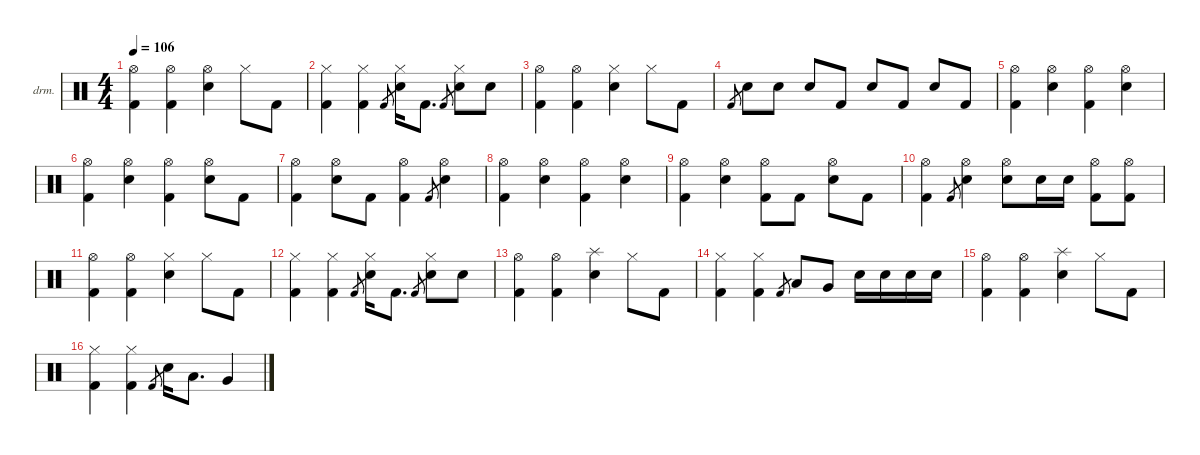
\defaultSystemsLayout 4
\hideDynamics
\bracketExtendMode nobrackets
\firstSystemTrackNameOrientation horizontal
\otherSystemsTrackNameOrientation horizontal
\track ("Lars Ulrich" "drm.") {instrument percussion}
\staff {score}
\articulation defaults
\ts (4 4)
\tempo 106
\clef neutral
\ks c
("Hi-Hat (open)" "Kick (hit) 2").4{dy f} ("Hi-Hat (open)" "Kick (hit) 2").4 ("Hi-Hat (open)" "Snare (hit) 2").4 "Hi-Hat (closed)".8 "Kick (hit) 2".8 |
("Hi-Hat (closed)" "Kick (hit) 2").4 ("Hi-Hat (closed)" "Kick (hit) 2").4 "Kick (hit) 2".8{gr dy mf} ("Hi-Hat (closed)" "Snare (hit) 2").16{dy f} "Kick (hit) 2".8{d} "Kick (hit) 2".8{gr dy mf} ("Hi-Hat (closed)" "Snare (hit) 2").8{dy f} "Snare (hit) 2".8 |
("Hi-Hat (open)" "Kick (hit) 2").4 ("Hi-Hat (open)" "Kick (hit) 2").4 ("Hi-Hat (closed)" "Snare (hit) 2").4 "Hi-Hat (closed)".8 "Kick (hit) 2".8 |
"Kick (hit) 2".8{gr dy mf} "Snare (hit) 2".8{dy f} "Snare (hit) 2".8 "Snare (hit) 2".8 "Kick (hit) 2".8 "Snare (hit) 2".8 "Kick (hit) 2".8 "Snare (hit) 2".8 "Kick (hit) 2".8 |
("Hi-Hat (open)" "Kick (hit) 2").4 ("Hi-Hat (open)" "Snare (hit) 2").4 ("Hi-Hat (open)" "Kick (hit) 2").4 ("Hi-Hat (open)" "Snare (hit) 2").4 |
("Hi-Hat (open)" "Kick (hit) 2").4 ("Hi-Hat (open)" "Snare (hit) 2").4 ("Hi-Hat (open)" "Kick (hit) 2").4 ("Hi-Hat (open)" "Snare (hit) 2").8 "Kick (hit) 2".8 |
("Hi-Hat (open)" "Kick (hit) 2").4 ("Hi-Hat (open)" "Snare (hit) 2").8 "Kick (hit) 2".8 ("Hi-Hat (open)" "Kick (hit) 2").4 "Kick (hit) 2".8{gr dy mf} ("Hi-Hat (open)" "Snare (hit) 2").4{dy f} |
("Hi-Hat (open)" "Kick (hit) 2").4 ("Hi-Hat (open)" "Snare (hit) 2").4 ("Hi-Hat (open)" "Kick (hit) 2").4 ("Hi-Hat (open)" "Snare (hit) 2").4 |
("Hi-Hat (open)" "Kick (hit) 2").4 ("Hi-Hat (open)" "Snare (hit) 2").4 ("Hi-Hat (open)" "Kick (hit) 2").8 "Kick (hit) 2".8 ("Hi-Hat (open)" "Snare (hit) 2").8 "Kick (hit) 2".8 |
("Hi-Hat (open)" "Kick (hit) 2").4 "Kick (hit) 2".8{gr dy mf} ("Hi-Hat (open)" "Snare (hit) 2").4{dy f} ("Hi-Hat (open)" "Snare (hit) 2").8 "Snare (hit) 2".16 "Snare (hit) 2".16 ("Hi-Hat (open)" "Kick (hit) 2").8 ("Hi-Hat (open)" "Kick (hit) 2").8 |
("Hi-Hat (open)" "Kick (hit) 2").4 ("Hi-Hat (open)" "Kick (hit) 2").4 ("Hi-Hat (closed)" "Snare (hit) 2").4 "Hi-Hat (closed)".8 "Kick (hit) 2".8 |
("Hi-Hat (closed)" "Kick (hit) 2").4 ("Hi-Hat (closed)" "Kick (hit) 2").4 "Kick (hit) 2".8{gr dy mf} ("Hi-Hat (closed)" "Snare (hit) 2").16{dy f} "Kick (hit) 2".8{d} "Kick (hit) 2".8{gr dy mf} ("Hi-Hat (closed)" "Snare (hit) 2").8{dy f} "Snare (hit) 2".8 |
("Hi-Hat (open)" "Kick (hit) 2").4 ("Hi-Hat (open)" "Kick (hit) 2").4 ("Splash (hit)" "Snare (hit) 2").4{dy fff} "Hi-Hat (closed)".8{dy f} "Kick (hit) 2".8 |
("Hi-Hat (closed)" "Kick (hit) 2").4 ("Hi-Hat (closed)" "Kick (hit) 2").4 "Kick (hit) 2".8{gr dy mf} "Low Tom (hit)".8{dy f} "Very Low Tom (hit)".8 "Snare (hit) 2".16 "Snare (hit) 2".16 "Snare (hit) 2".16 "Snare (hit) 2".16 |
("Hi-Hat (open)" "Kick (hit) 2").4 ("Hi-Hat (open)" "Kick (hit) 2").4 ("Splash (hit)" "Snare (hit) 2").4{dy fff} "Hi-Hat (closed)".8{dy f} "Kick (hit) 2".8 |
("Hi-Hat (closed)" "Kick (hit) 2").4 ("Hi-Hat (closed)" "Kick (hit) 2").4 "Kick (hit) 2".8{gr dy mf} "Snare (hit) 2".16{dy f} "Low Tom (hit)".8{d} "Very Low Tom (hit)".4
